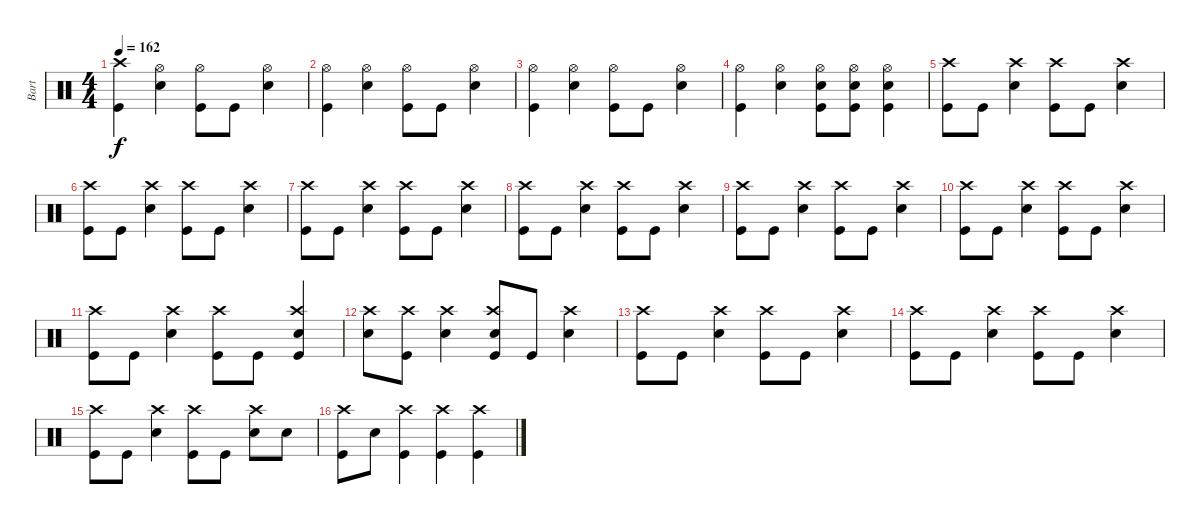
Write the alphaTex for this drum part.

\track ("Bart" "Bart") {instrument percussion}
\staff {score}
\articulation defaults
\ts (4 4)
\tempo 162
\clef neutral
\ks c
("Kick (hit)" "Crash high (hit)").4{dy f} ("Electric Snare (hit)" "Hi-Hat (open)").4 ("Kick (hit)" "Hi-Hat (open)").8 "Kick (hit)".8 ("Electric Snare (hit)" "Hi-Hat (open)").4 |
("Kick (hit)" "Hi-Hat (open)").4 ("Electric Snare (hit)" "Hi-Hat (open)").4 ("Kick (hit)" "Hi-Hat (open)").8 "Kick (hit)".8 ("Electric Snare (hit)" "Hi-Hat (open)").4 |
("Kick (hit)" "Hi-Hat (open)").4 ("Electric Snare (hit)" "Hi-Hat (open)").4 ("Kick (hit)" "Hi-Hat (open)").8 "Kick (hit)".8 ("Electric Snare (hit)" "Hi-Hat (open)").4 |
("Kick (hit)" "Hi-Hat (open)").4 ("Electric Snare (hit)" "Hi-Hat (open)").4 ("Kick (hit)" "Electric Snare (hit)" "Hi-Hat (open)").8 ("Kick (hit)" "Electric Snare (hit)" "Hi-Hat (open)").8 ("Kick (hit)" "Electric Snare (hit)" "Hi-Hat (open)").4 |
("Kick (hit)" "Crash high (hit)").8 "Kick (hit)".8 ("Electric Snare (hit)" "Crash high (hit)").4 ("Kick (hit)" "Crash high (hit)").8 "Kick (hit)".8 ("Electric Snare (hit)" "Crash high (hit)").4 |
("Kick (hit)" "Crash high (hit)").8 "Kick (hit)".8 ("Electric Snare (hit)" "Crash high (hit)").4 ("Kick (hit)" "Crash high (hit)").8 "Kick (hit)".8 ("Electric Snare (hit)" "Crash high (hit)").4 |
("Kick (hit)" "Crash high (hit)").8 "Kick (hit)".8 ("Electric Snare (hit)" "Crash high (hit)").4 ("Kick (hit)" "Crash high (hit)").8 "Kick (hit)".8 ("Electric Snare (hit)" "Crash high (hit)").4 |
("Kick (hit)" "Crash high (hit)").8 "Kick (hit)".8 ("Electric Snare (hit)" "Crash high (hit)").4 ("Kick (hit)" "Crash high (hit)").8 "Kick (hit)".8 ("Electric Snare (hit)" "Crash high (hit)").4 |
("Kick (hit)" "Crash high (hit)").8 "Kick (hit)".8 ("Electric Snare (hit)" "Crash high (hit)").4 ("Kick (hit)" "Crash high (hit)").8 "Kick (hit)".8 ("Electric Snare (hit)" "Crash high (hit)").4 |
("Kick (hit)" "Crash high (hit)").8 "Kick (hit)".8 ("Electric Snare (hit)" "Crash high (hit)").4 ("Kick (hit)" "Crash high (hit)").8 "Kick (hit)".8 ("Electric Snare (hit)" "Crash high (hit)").4 |
("Kick (hit)" "Crash high (hit)").8 "Kick (hit)".8 ("Electric Snare (hit)" "Crash high (hit)").4 ("Kick (hit)" "Crash high (hit)").8 "Kick (hit)".8 ("Kick (hit)" "Electric Snare (hit)" "Crash high (hit)").4 |
("Electric Snare (hit)" "Crash high (hit)").8 ("Kick (hit)" "Crash high (hit)").8 ("Electric Snare (hit)" "Crash high (hit)").4 ("Kick (hit)" "Electric Snare (hit)" "Crash high (hit)").8 "Kick (hit)".8 ("Electric Snare (hit)" "Crash high (hit)").4 |
("Kick (hit)" "Crash high (hit)").8 "Kick (hit)".8 ("Electric Snare (hit)" "Crash high (hit)").4 ("Kick (hit)" "Crash high (hit)").8 "Kick (hit)".8 ("Electric Snare (hit)" "Crash high (hit)").4 |
("Kick (hit)" "Crash high (hit)").8 "Kick (hit)".8 ("Electric Snare (hit)" "Crash high (hit)").4 ("Kick (hit)" "Crash high (hit)").8 "Kick (hit)".8 ("Electric Snare (hit)" "Crash high (hit)").4 |
("Kick (hit)" "Crash high (hit)").8 "Kick (hit)".8 ("Electric Snare (hit)" "Crash high (hit)").4 ("Kick (hit)" "Crash high (hit)").8 "Kick (hit)".8 ("Electric Snare (hit)" "Crash high (hit)").8 "Electric Snare (hit)".8 |
("Kick (hit)" "Crash high (hit)").8 "Electric Snare (hit)".8 ("Kick (hit)" "Crash high (hit)").4 ("Kick (hit)" "Crash high (hit)").4 ("Kick (hit)" "Crash high (hit)").4
